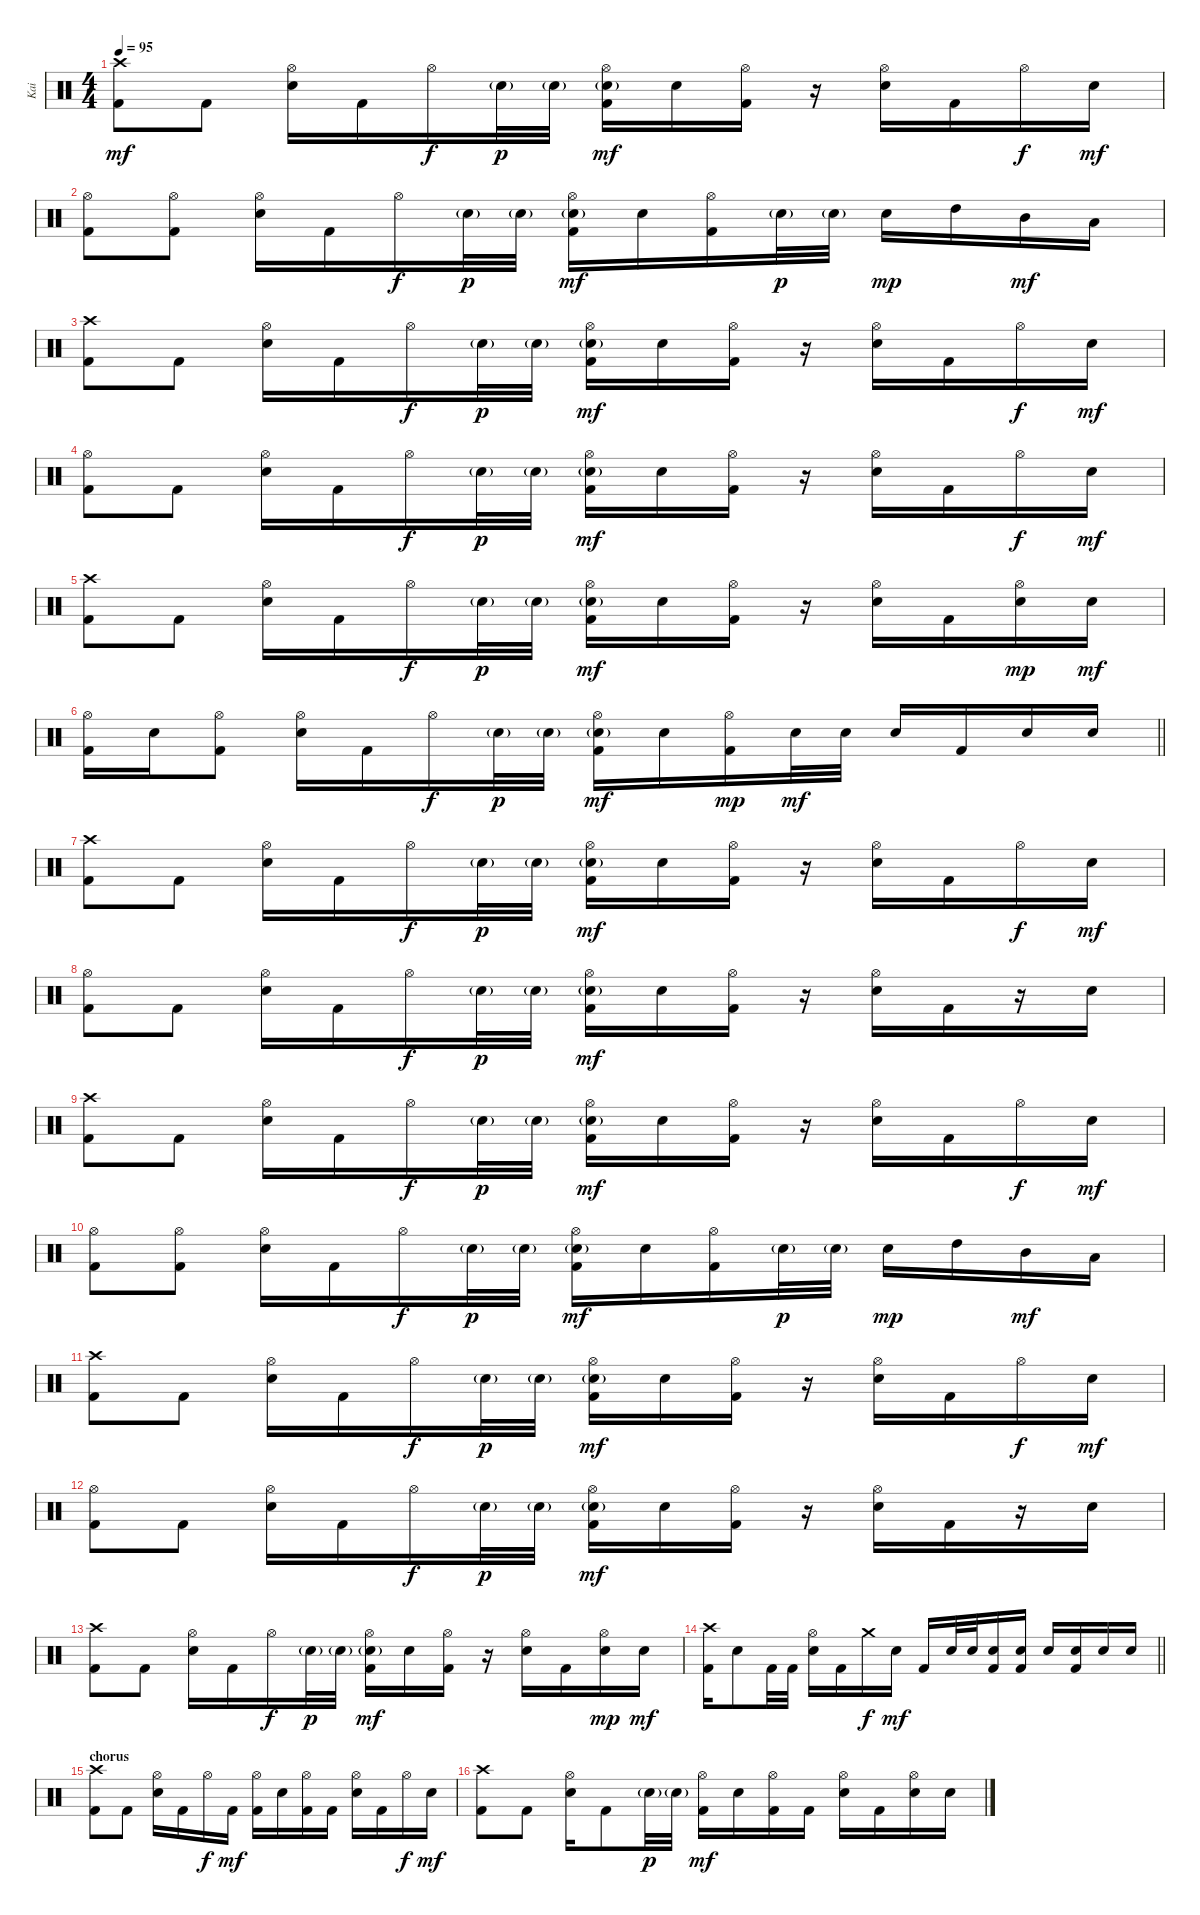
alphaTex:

\track ("Kai" "Kai") {instrument percussion}
\staff {score}
\articulation defaults
\ts (4 4)
\tempo 95
\clef neutral
\ks c
("Crash high (hit)" "Kick (hit) 2").8{dy mf} "Kick (hit) 2".8 ("Hi-Hat (open)" "Electric Snare (hit)").16 "Kick (hit) 2".16 "Hi-Hat (open)".16{dy f} "Electric Snare (hit)"{g}.32{dy p} "Electric Snare (hit)"{g}.32 ("Hi-Hat (open)" "Electric Snare (hit)"{g} "Kick (hit) 2").16{dy mf} "Electric Snare (hit)".16 ("Hi-Hat (open)" "Kick (hit) 2").16 r.16 ("Hi-Hat (open)" "Electric Snare (hit)").16 "Kick (hit) 2".16 "Hi-Hat (open)".16{dy f} "Electric Snare (hit)".16{dy mf} |
("Hi-Hat (open)" "Kick (hit) 2").8 ("Hi-Hat (open)" "Kick (hit) 2").8 ("Hi-Hat (open)" "Electric Snare (hit)").16 "Kick (hit) 2".16 "Hi-Hat (open)".16{dy f} "Electric Snare (hit)"{g}.32{dy p} "Electric Snare (hit)"{g}.32 ("Hi-Hat (open)" "Electric Snare (hit)"{g} "Kick (hit) 2").16{dy mf} "Electric Snare (hit)".16 ("Hi-Hat (open)" "Kick (hit) 2").16 "Electric Snare (hit)"{g}.32{dy p} "Electric Snare (hit)"{g}.32 "Electric Snare (hit)".16{dy mp} "High Tom (hit)".16 "Mid Tom (hit)".16{dy mf} "Low Tom (hit)".16 |
("Crash high (hit)" "Kick (hit) 2").8 "Kick (hit) 2".8 ("Hi-Hat (open)" "Electric Snare (hit)").16 "Kick (hit) 2".16 "Hi-Hat (open)".16{dy f} "Electric Snare (hit)"{g}.32{dy p} "Electric Snare (hit)"{g}.32 ("Hi-Hat (open)" "Electric Snare (hit)"{g} "Kick (hit) 2").16{dy mf} "Electric Snare (hit)".16 ("Hi-Hat (open)" "Kick (hit) 2").16 r.16 ("Hi-Hat (open)" "Electric Snare (hit)").16 "Kick (hit) 2".16 "Hi-Hat (open)".16{dy f} "Electric Snare (hit)".16{dy mf} |
("Hi-Hat (open)" "Kick (hit) 2").8 "Kick (hit) 2".8 ("Hi-Hat (open)" "Electric Snare (hit)").16 "Kick (hit) 2".16 "Hi-Hat (open)".16{dy f} "Electric Snare (hit)"{g}.32{dy p} "Electric Snare (hit)"{g}.32 ("Hi-Hat (open)" "Electric Snare (hit)"{g} "Kick (hit) 2").16{dy mf} "Electric Snare (hit)".16 ("Hi-Hat (open)" "Kick (hit) 2").16 r.16 ("Hi-Hat (open)" "Electric Snare (hit)").16 "Kick (hit) 2".16 "Hi-Hat (open)".16{dy f} "Electric Snare (hit)".16{dy mf} |
("Crash high (hit)" "Kick (hit) 2").8 "Kick (hit) 2".8 ("Hi-Hat (open)" "Electric Snare (hit)").16 "Kick (hit) 2".16 "Hi-Hat (open)".16{dy f} "Electric Snare (hit)"{g}.32{dy p} "Electric Snare (hit)"{g}.32 ("Hi-Hat (open)" "Electric Snare (hit)"{g} "Kick (hit) 2").16{dy mf} "Electric Snare (hit)".16 ("Hi-Hat (open)" "Kick (hit) 2").16 r.16 ("Hi-Hat (open)" "Electric Snare (hit)").16 "Kick (hit) 2".16 ("Hi-Hat (open)" "Electric Snare (hit)").16{dy mp} "Electric Snare (hit)".16{dy mf} |
\barLineRight lightlight
("Hi-Hat (open)" "Kick (hit) 2").16 "Electric Snare (hit)".16 ("Hi-Hat (open)" "Kick (hit) 2").8 ("Hi-Hat (open)" "Electric Snare (hit)").16 "Kick (hit) 2".16 "Hi-Hat (open)".16{dy f} "Electric Snare (hit)"{g}.32{dy p} "Electric Snare (hit)"{g}.32 ("Hi-Hat (open)" "Electric Snare (hit)"{g} "Kick (hit) 2").16{dy mf} "Electric Snare (hit)".16 ("Hi-Hat (open)" "Kick (hit) 2").16{dy mp} "Electric Snare (hit)".32{dy mf} "Electric Snare (hit)".32 "Electric Snare (hit)".16 "Kick (hit) 2".16 "Electric Snare (hit)".16 "Electric Snare (hit)".16 |
("Crash high (hit)" "Kick (hit) 2").8 "Kick (hit) 2".8 ("Hi-Hat (open)" "Electric Snare (hit)").16 "Kick (hit) 2".16 "Hi-Hat (open)".16{dy f} "Electric Snare (hit)"{g}.32{dy p} "Electric Snare (hit)"{g}.32 ("Hi-Hat (open)" "Electric Snare (hit)"{g} "Kick (hit) 2").16{dy mf} "Electric Snare (hit)".16 ("Hi-Hat (open)" "Kick (hit) 2").16 r.16 ("Hi-Hat (open)" "Electric Snare (hit)").16 "Kick (hit) 2".16 "Hi-Hat (open)".16{dy f} "Electric Snare (hit)".16{dy mf} |
("Hi-Hat (open)" "Kick (hit) 2").8 "Kick (hit) 2".8 ("Hi-Hat (open)" "Electric Snare (hit)").16 "Kick (hit) 2".16 "Hi-Hat (open)".16{dy f} "Electric Snare (hit)"{g}.32{dy p} "Electric Snare (hit)"{g}.32 ("Hi-Hat (open)" "Electric Snare (hit)"{g} "Kick (hit) 2").16{dy mf} "Electric Snare (hit)".16 ("Hi-Hat (open)" "Kick (hit) 2").16 r.16 ("Hi-Hat (open)" "Electric Snare (hit)").16 "Kick (hit) 2".16 r.16 "Electric Snare (hit)".16 |
("Crash high (hit)" "Kick (hit) 2").8 "Kick (hit) 2".8 ("Hi-Hat (open)" "Electric Snare (hit)").16 "Kick (hit) 2".16 "Hi-Hat (open)".16{dy f} "Electric Snare (hit)"{g}.32{dy p} "Electric Snare (hit)"{g}.32 ("Hi-Hat (open)" "Electric Snare (hit)"{g} "Kick (hit) 2").16{dy mf} "Electric Snare (hit)".16 ("Hi-Hat (open)" "Kick (hit) 2").16 r.16 ("Hi-Hat (open)" "Electric Snare (hit)").16 "Kick (hit) 2".16 "Hi-Hat (open)".16{dy f} "Electric Snare (hit)".16{dy mf} |
("Hi-Hat (open)" "Kick (hit) 2").8 ("Hi-Hat (open)" "Kick (hit) 2").8 ("Hi-Hat (open)" "Electric Snare (hit)").16 "Kick (hit) 2".16 "Hi-Hat (open)".16{dy f} "Electric Snare (hit)"{g}.32{dy p} "Electric Snare (hit)"{g}.32 ("Hi-Hat (open)" "Electric Snare (hit)"{g} "Kick (hit) 2").16{dy mf} "Electric Snare (hit)".16 ("Hi-Hat (open)" "Kick (hit) 2").16 "Electric Snare (hit)"{g}.32{dy p} "Electric Snare (hit)"{g}.32 "Electric Snare (hit)".16{dy mp} "High Tom (hit)".16 "Mid Tom (hit)".16{dy mf} "Low Tom (hit)".16 |
("Crash high (hit)" "Kick (hit) 2").8 "Kick (hit) 2".8 ("Hi-Hat (open)" "Electric Snare (hit)").16 "Kick (hit) 2".16 "Hi-Hat (open)".16{dy f} "Electric Snare (hit)"{g}.32{dy p} "Electric Snare (hit)"{g}.32 ("Hi-Hat (open)" "Electric Snare (hit)"{g} "Kick (hit) 2").16{dy mf} "Electric Snare (hit)".16 ("Hi-Hat (open)" "Kick (hit) 2").16 r.16 ("Hi-Hat (open)" "Electric Snare (hit)").16 "Kick (hit) 2".16 "Hi-Hat (open)".16{dy f} "Electric Snare (hit)".16{dy mf} |
("Hi-Hat (open)" "Kick (hit) 2").8 "Kick (hit) 2".8 ("Hi-Hat (open)" "Electric Snare (hit)").16 "Kick (hit) 2".16 "Hi-Hat (open)".16{dy f} "Electric Snare (hit)"{g}.32{dy p} "Electric Snare (hit)"{g}.32 ("Hi-Hat (open)" "Electric Snare (hit)"{g} "Kick (hit) 2").16{dy mf} "Electric Snare (hit)".16 ("Hi-Hat (open)" "Kick (hit) 2").16 r.16 ("Hi-Hat (open)" "Electric Snare (hit)").16 "Kick (hit) 2".16 r.16 "Electric Snare (hit)".16 |
("Crash high (hit)" "Kick (hit) 2").8 "Kick (hit) 2".8 ("Hi-Hat (open)" "Electric Snare (hit)").16 "Kick (hit) 2".16 "Hi-Hat (open)".16{dy f} "Electric Snare (hit)"{g}.32{dy p} "Electric Snare (hit)"{g}.32 ("Hi-Hat (open)" "Electric Snare (hit)"{g} "Kick (hit) 2").16{dy mf} "Electric Snare (hit)".16 ("Hi-Hat (open)" "Kick (hit) 2").16 r.16 ("Hi-Hat (open)" "Electric Snare (hit)").16 "Kick (hit) 2".16 ("Hi-Hat (open)" "Electric Snare (hit)").16{dy mp} "Electric Snare (hit)".16{dy mf} |
\barLineRight lightlight
("Crash high (hit)" "Kick (hit) 2").16 "Electric Snare (hit)".8 "Kick (hit) 2".32 "Kick (hit) 2".32 ("Hi-Hat (open)" "Electric Snare (hit)").16 "Kick (hit) 2".16 "Crash medium (hit)".16{dy f} "Electric Snare (hit)".16{dy mf} "Kick (hit) 2".16 "Electric Snare (hit)".32 "Electric Snare (hit)".32 ("Electric Snare (hit)" "Kick (hit) 2").16 ("Electric Snare (hit)" "Kick (hit) 2").16 "Electric Snare (hit)".16 ("Electric Snare (hit)" "Kick (hit) 2").16 "Electric Snare (hit)".16 "Electric Snare (hit)".16 |
\section ("" "chorus")
("Crash high (hit)" "Kick (hit) 2").8 "Kick (hit) 2".8 ("Hi-Hat (open)" "Electric Snare (hit)").16 "Kick (hit) 2".16 "Hi-Hat (open)".16{dy f} "Kick (hit) 2".16{dy mf} ("Hi-Hat (open)" "Kick (hit) 2").16 "Electric Snare (hit)".16 ("Hi-Hat (open)" "Kick (hit) 2").16 "Kick (hit) 2".16 ("Hi-Hat (open)" "Electric Snare (hit)").16 "Kick (hit) 2".16 "Hi-Hat (open)".16{dy f} "Electric Snare (hit)".16{dy mf} |
("Crash high (hit)" "Kick (hit) 2").8 "Kick (hit) 2".8 ("Hi-Hat (open)" "Electric Snare (hit)").16 "Kick (hit) 2".8 "Electric Snare (hit)"{g}.32{dy p} "Electric Snare (hit)"{g}.32 ("Hi-Hat (open)" "Kick (hit) 2").16{dy mf} "Electric Snare (hit)".16 ("Hi-Hat (open)" "Kick (hit) 2").16 "Kick (hit) 2".16 ("Hi-Hat (open)" "Electric Snare (hit)").16 "Kick (hit) 2".16 ("Hi-Hat (open)" "Electric Snare (hit)").16 "Electric Snare (hit)".16
